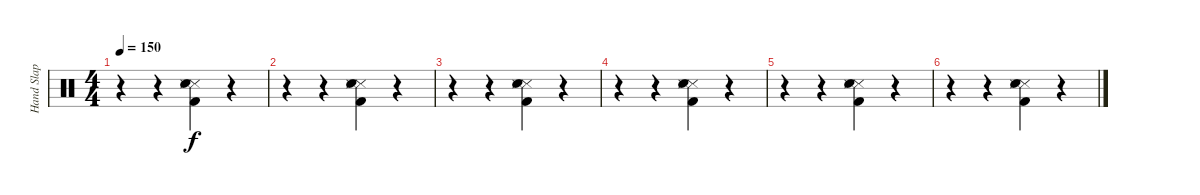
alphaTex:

\track ("Hand Slap" "Hand Slap") {instrument percussion}
\staff {score}
\articulation defaults
\ts (4 4)
\tempo 150
\clef neutral
\ks c
r.4{dy f} r.4 ("Snare (side stick) 3" "Kick (hit) 2" "Metronome (hit)" "Hand Clap (hit)").4 r.4 |
r.4 r.4 ("Snare (side stick) 3" "Kick (hit) 2" "Metronome (hit)" "Hand Clap (hit)").4 r.4 |
r.4 r.4 ("Snare (side stick) 3" "Kick (hit) 2" "Metronome (hit)" "Hand Clap (hit)").4 r.4 |
r.4 r.4 ("Snare (side stick) 3" "Kick (hit) 2" "Metronome (hit)" "Hand Clap (hit)").4 r.4 |
r.4 r.4 ("Snare (side stick) 3" "Kick (hit) 2" "Metronome (hit)" "Hand Clap (hit)").4 r.4 |
r.4 r.4 ("Snare (side stick) 3" "Kick (hit) 2" "Metronome (hit)" "Hand Clap (hit)").4 r.4
